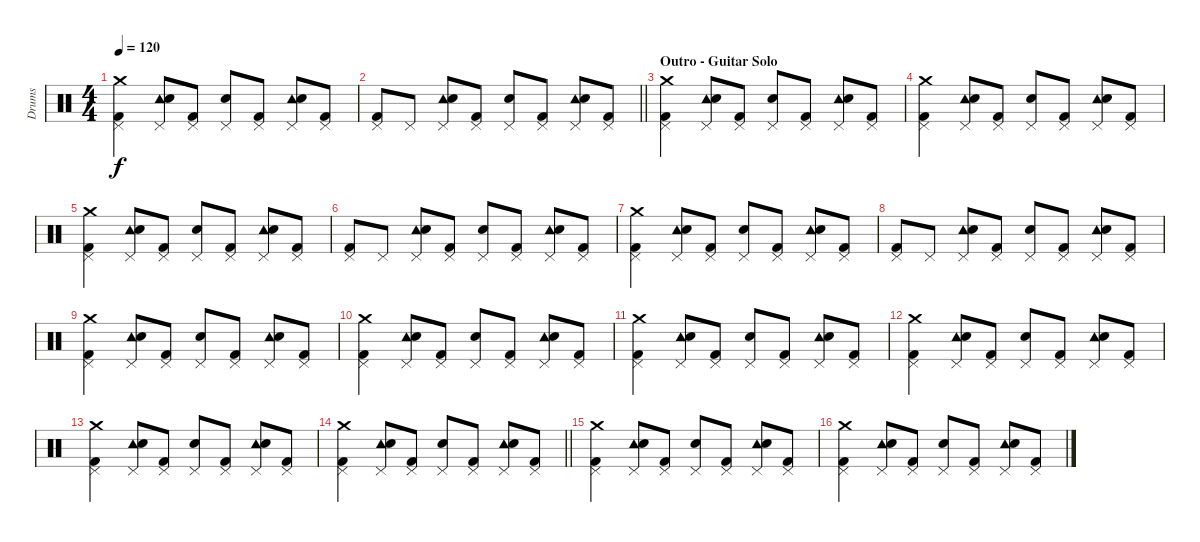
\track ("Drums" "Drums") {instrument percussion}
\staff {score}
\articulation defaults
\ts (4 4)
\tempo 120
\clef neutral
\ks c
("Crash medium (hit)" "Pedal Hi-Hat (hit)" "Kick (hit) 2").4{dy f} ("Tambourine (hit)" "Pedal Hi-Hat (hit)" "Electric Snare (hit)").8 ("Pedal Hi-Hat (hit)" "Kick (hit) 2").8 ("Pedal Hi-Hat (hit)" "Electric Snare (hit)").8 ("Pedal Hi-Hat (hit)" "Kick (hit) 2").8 ("Tambourine (hit)" "Pedal Hi-Hat (hit)" "Electric Snare (hit)").8 ("Pedal Hi-Hat (hit)" "Kick (hit) 2").8 |
\barLineRight lightlight
("Pedal Hi-Hat (hit)" "Kick (hit) 2").8 "Pedal Hi-Hat (hit)".8 ("Tambourine (hit)" "Pedal Hi-Hat (hit)" "Electric Snare (hit)").8 ("Pedal Hi-Hat (hit)" "Kick (hit) 2").8 ("Pedal Hi-Hat (hit)" "Electric Snare (hit)").8 ("Pedal Hi-Hat (hit)" "Kick (hit) 2").8 ("Tambourine (hit)" "Pedal Hi-Hat (hit)" "Electric Snare (hit)").8 ("Pedal Hi-Hat (hit)" "Kick (hit) 2").8 |
\section ("" "Outro - Guitar Solo")
("Crash medium (hit)" "Pedal Hi-Hat (hit)" "Kick (hit) 2").4 ("Tambourine (hit)" "Pedal Hi-Hat (hit)" "Electric Snare (hit)").8 ("Pedal Hi-Hat (hit)" "Kick (hit) 2").8 ("Pedal Hi-Hat (hit)" "Electric Snare (hit)").8 ("Pedal Hi-Hat (hit)" "Kick (hit) 2").8 ("Tambourine (hit)" "Pedal Hi-Hat (hit)" "Electric Snare (hit)").8 ("Pedal Hi-Hat (hit)" "Kick (hit) 2").8 |
("Crash medium (hit)" "Pedal Hi-Hat (hit)" "Kick (hit) 2").4 ("Tambourine (hit)" "Pedal Hi-Hat (hit)" "Electric Snare (hit)").8 ("Pedal Hi-Hat (hit)" "Kick (hit) 2").8 ("Pedal Hi-Hat (hit)" "Electric Snare (hit)").8 ("Pedal Hi-Hat (hit)" "Kick (hit) 2").8 ("Tambourine (hit)" "Pedal Hi-Hat (hit)" "Electric Snare (hit)").8 ("Pedal Hi-Hat (hit)" "Kick (hit) 2").8 |
("Crash medium (hit)" "Pedal Hi-Hat (hit)" "Kick (hit) 2").4 ("Tambourine (hit)" "Pedal Hi-Hat (hit)" "Electric Snare (hit)").8 ("Pedal Hi-Hat (hit)" "Kick (hit) 2").8 ("Pedal Hi-Hat (hit)" "Electric Snare (hit)").8 ("Pedal Hi-Hat (hit)" "Kick (hit) 2").8 ("Tambourine (hit)" "Pedal Hi-Hat (hit)" "Electric Snare (hit)").8 ("Pedal Hi-Hat (hit)" "Kick (hit) 2").8 |
("Pedal Hi-Hat (hit)" "Kick (hit) 2").8 "Pedal Hi-Hat (hit)".8 ("Tambourine (hit)" "Pedal Hi-Hat (hit)" "Electric Snare (hit)").8 ("Pedal Hi-Hat (hit)" "Kick (hit) 2").8 ("Pedal Hi-Hat (hit)" "Electric Snare (hit)").8 ("Pedal Hi-Hat (hit)" "Kick (hit) 2").8 ("Tambourine (hit)" "Pedal Hi-Hat (hit)" "Electric Snare (hit)").8 ("Pedal Hi-Hat (hit)" "Kick (hit) 2").8 |
("Crash medium (hit)" "Pedal Hi-Hat (hit)" "Kick (hit) 2").4 ("Tambourine (hit)" "Pedal Hi-Hat (hit)" "Electric Snare (hit)").8 ("Pedal Hi-Hat (hit)" "Kick (hit) 2").8 ("Pedal Hi-Hat (hit)" "Electric Snare (hit)").8 ("Pedal Hi-Hat (hit)" "Kick (hit) 2").8 ("Tambourine (hit)" "Pedal Hi-Hat (hit)" "Electric Snare (hit)").8 ("Pedal Hi-Hat (hit)" "Kick (hit) 2").8 |
("Pedal Hi-Hat (hit)" "Kick (hit) 2").8 "Pedal Hi-Hat (hit)".8 ("Tambourine (hit)" "Pedal Hi-Hat (hit)" "Electric Snare (hit)").8 ("Pedal Hi-Hat (hit)" "Kick (hit) 2").8 ("Pedal Hi-Hat (hit)" "Electric Snare (hit)").8 ("Pedal Hi-Hat (hit)" "Kick (hit) 2").8 ("Tambourine (hit)" "Pedal Hi-Hat (hit)" "Electric Snare (hit)").8 ("Pedal Hi-Hat (hit)" "Kick (hit) 2").8 |
("Crash medium (hit)" "Pedal Hi-Hat (hit)" "Kick (hit) 2").4 ("Tambourine (hit)" "Pedal Hi-Hat (hit)" "Electric Snare (hit)").8 ("Pedal Hi-Hat (hit)" "Kick (hit) 2").8 ("Pedal Hi-Hat (hit)" "Electric Snare (hit)").8 ("Pedal Hi-Hat (hit)" "Kick (hit) 2").8 ("Tambourine (hit)" "Pedal Hi-Hat (hit)" "Electric Snare (hit)").8 ("Pedal Hi-Hat (hit)" "Kick (hit) 2").8 |
("Crash medium (hit)" "Pedal Hi-Hat (hit)" "Kick (hit) 2").4 ("Tambourine (hit)" "Pedal Hi-Hat (hit)" "Electric Snare (hit)").8 ("Pedal Hi-Hat (hit)" "Kick (hit) 2").8 ("Pedal Hi-Hat (hit)" "Electric Snare (hit)").8 ("Pedal Hi-Hat (hit)" "Kick (hit) 2").8 ("Tambourine (hit)" "Pedal Hi-Hat (hit)" "Electric Snare (hit)").8 ("Pedal Hi-Hat (hit)" "Kick (hit) 2").8 |
("Crash medium (hit)" "Pedal Hi-Hat (hit)" "Kick (hit) 2").4 ("Tambourine (hit)" "Pedal Hi-Hat (hit)" "Electric Snare (hit)").8 ("Pedal Hi-Hat (hit)" "Kick (hit) 2").8 ("Pedal Hi-Hat (hit)" "Electric Snare (hit)").8 ("Pedal Hi-Hat (hit)" "Kick (hit) 2").8 ("Tambourine (hit)" "Pedal Hi-Hat (hit)" "Electric Snare (hit)").8 ("Pedal Hi-Hat (hit)" "Kick (hit) 2").8 |
("Crash medium (hit)" "Pedal Hi-Hat (hit)" "Kick (hit) 2").4 ("Tambourine (hit)" "Pedal Hi-Hat (hit)" "Electric Snare (hit)").8 ("Pedal Hi-Hat (hit)" "Kick (hit) 2").8 ("Pedal Hi-Hat (hit)" "Electric Snare (hit)").8 ("Pedal Hi-Hat (hit)" "Kick (hit) 2").8 ("Tambourine (hit)" "Pedal Hi-Hat (hit)" "Electric Snare (hit)").8 ("Pedal Hi-Hat (hit)" "Kick (hit) 2").8 |
("Crash medium (hit)" "Pedal Hi-Hat (hit)" "Kick (hit) 2").4 ("Tambourine (hit)" "Pedal Hi-Hat (hit)" "Electric Snare (hit)").8 ("Pedal Hi-Hat (hit)" "Kick (hit) 2").8 ("Pedal Hi-Hat (hit)" "Electric Snare (hit)").8 ("Pedal Hi-Hat (hit)" "Kick (hit) 2").8 ("Tambourine (hit)" "Pedal Hi-Hat (hit)" "Electric Snare (hit)").8 ("Pedal Hi-Hat (hit)" "Kick (hit) 2").8 |
\barLineRight lightlight
("Crash medium (hit)" "Pedal Hi-Hat (hit)" "Kick (hit) 2").4 ("Tambourine (hit)" "Pedal Hi-Hat (hit)" "Electric Snare (hit)").8 ("Pedal Hi-Hat (hit)" "Kick (hit) 2").8 ("Pedal Hi-Hat (hit)" "Electric Snare (hit)").8 ("Pedal Hi-Hat (hit)" "Kick (hit) 2").8 ("Tambourine (hit)" "Pedal Hi-Hat (hit)" "Electric Snare (hit)").8 ("Pedal Hi-Hat (hit)" "Kick (hit) 2").8 |
("Crash medium (hit)" "Pedal Hi-Hat (hit)" "Kick (hit) 2").4 ("Tambourine (hit)" "Pedal Hi-Hat (hit)" "Electric Snare (hit)").8 ("Pedal Hi-Hat (hit)" "Kick (hit) 2").8 ("Pedal Hi-Hat (hit)" "Electric Snare (hit)").8 ("Pedal Hi-Hat (hit)" "Kick (hit) 2").8 ("Tambourine (hit)" "Pedal Hi-Hat (hit)" "Electric Snare (hit)").8 ("Pedal Hi-Hat (hit)" "Kick (hit) 2").8 |
("Crash medium (hit)" "Pedal Hi-Hat (hit)" "Kick (hit) 2").4 ("Tambourine (hit)" "Pedal Hi-Hat (hit)" "Electric Snare (hit)").8 ("Pedal Hi-Hat (hit)" "Kick (hit) 2").8 ("Pedal Hi-Hat (hit)" "Electric Snare (hit)").8 ("Pedal Hi-Hat (hit)" "Kick (hit) 2").8 ("Tambourine (hit)" "Pedal Hi-Hat (hit)" "Electric Snare (hit)").8 ("Pedal Hi-Hat (hit)" "Kick (hit) 2").8
